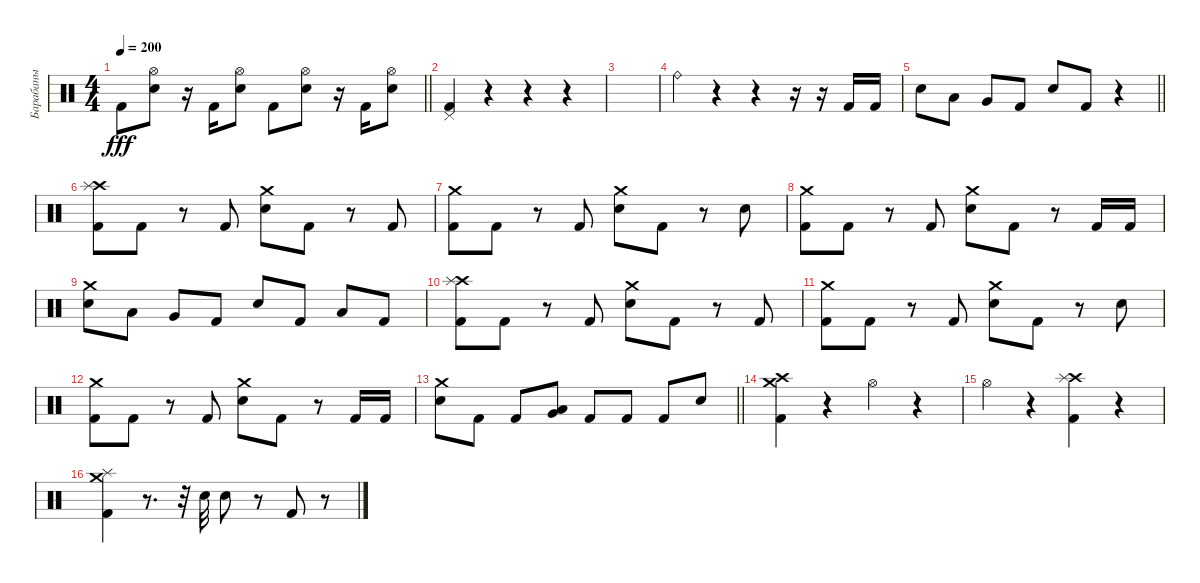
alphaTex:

\track ("Барабаны" "Барабаны") {instrument percussion}
\staff {score}
\articulation defaults
\ts (4 4)
\tempo 200
\clef neutral
\barLineRight lightlight
\ks c "Kick (hit) 2".8{dy fff}
("Snare (hit) 2" "Hi-Hat (open)").8 r.16 "Kick (hit) 2".16 ("Snare (hit) 2" "Hi-Hat (open)").8 "Kick (hit) 2".8 ("Snare (hit) 2" "Hi-Hat (open)").8 r.16 "Kick (hit) 2".16 ("Snare (hit) 2" "Hi-Hat (open)").8 |
\section ("" " ")
("Pedal Hi-Hat (hit)" "Kick (hit) 2").4 r.4 r.4 r.4 |
|
"Ride (bell)".4 r.4 r.4 r.16 r.16 "Kick (hit) 2".16 "Kick (hit) 2".16 |
\barLineRight lightlight "Snare (hit) 2".8 "Low Tom (hit)".8 "Very Low Tom (hit)".8 "Kick (hit) 2".8 "Snare (hit) 2".8 "Kick (hit) 2".8
r.4 |
\section ("" " ")
("Kick (hit) 2" "Crash high (hit)" "Splash (hit)").8 "Kick (hit) 2".8 r.8 "Kick (hit) 2".8 ("Snare (hit) 2" "Crash medium (hit)").8 "Kick (hit) 2".8 r.8 "Kick (hit) 2".8 |
("Kick (hit) 2" "Crash medium (hit)").8 "Kick (hit) 2".8 r.8 "Kick (hit) 2".8 ("Snare (hit) 2" "Crash medium (hit)").8 "Kick (hit) 2".8 r.8 "Snare (hit) 2".8 |
("Kick (hit) 2" "Crash medium (hit)").8 "Kick (hit) 2".8 r.8 "Kick (hit) 2".8 ("Snare (hit) 2" "Crash medium (hit)").8 "Kick (hit) 2".8 r.8 "Kick (hit) 2".16 "Kick (hit) 2".16 |
("Snare (hit) 2" "Crash medium (hit)").8 "Low Tom (hit)".8 "Very Low Tom (hit)".8 "Kick (hit) 2".8 "Snare (hit) 2".8 "Kick (hit) 2".8 "Low Floor Tom (hit)".8 "Kick (hit) 2".8 |
("Kick (hit) 2" "Crash high (hit)" "Splash (hit)").8 "Kick (hit) 2".8 r.8 "Kick (hit) 2".8 ("Snare (hit) 2" "Crash medium (hit)").8 "Kick (hit) 2".8 r.8 "Kick (hit) 2".8 |
("Kick (hit) 2" "Crash medium (hit)").8 "Kick (hit) 2".8 r.8 "Kick (hit) 2".8 ("Snare (hit) 2" "Crash medium (hit)").8 "Kick (hit) 2".8 r.8 "Snare (hit) 2".8 |
("Kick (hit) 2" "Crash medium (hit)").8 "Kick (hit) 2".8 r.8 "Kick (hit) 2".8 ("Snare (hit) 2" "Crash medium (hit)").8 "Kick (hit) 2".8 r.8 "Kick (hit) 2".16 "Kick (hit) 2".16 |
\barLineRight lightlight
("Snare (hit) 2" "Crash medium (hit)").8 "Kick (hit) 2".8 "Kick (hit) 2".8 ("Low Floor Tom (hit)" "Very Low Tom (hit)").8 "Kick (hit) 2".8 "Kick (hit) 2".8 "Kick (hit) 2".8 "Snare (hit) 2".8 |
\section ("" " ")
("Kick (hit) 2" "Crash high (hit)" "Crash medium (hit)").4 r.4 "Hi-Hat (open)".4 r.4 |
"Hi-Hat (open)".4 r.4 ("Kick (hit) 2" "Crash high (hit)" "Splash (hit)").4 r.4 |
("Kick (hit) 2" "Splash (hit)" "Crash medium (hit)").4 r.8{d} r.32 "Snare (hit) 2".32 "Snare (hit) 2".8 r.8 "Kick (hit) 2".8 r.8
